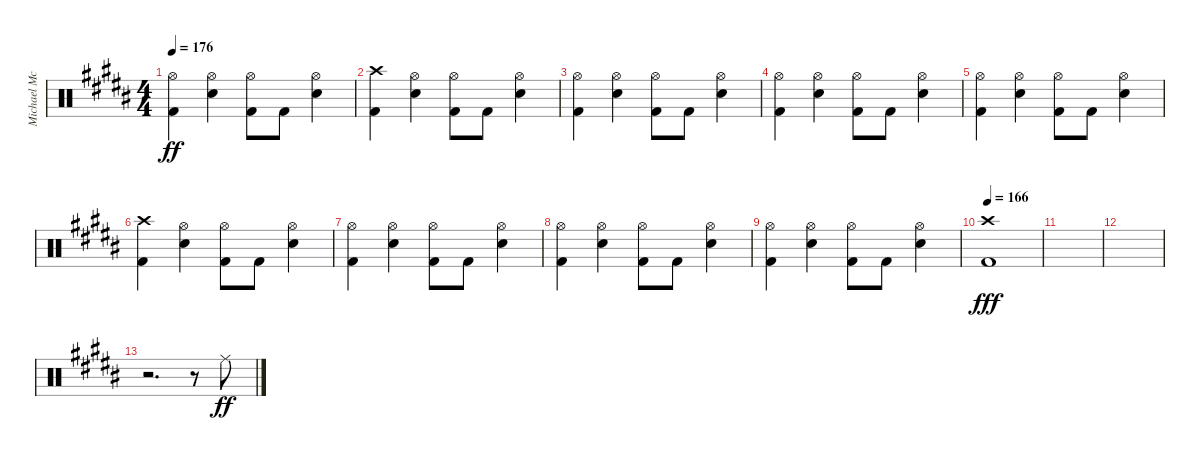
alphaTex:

\track ("Michael McDermott - Drums" "Michael Mc") {instrument percussion}
\staff {score}
\articulation defaults
\ts (4 4)
\tempo 176
\clef neutral
\ks b
("Hi-Hat (open)" "Kick (hit) 2").4{dy ff} ("Snare (hit) 2" "Hi-Hat (open)").4 ("Hi-Hat (open)" "Kick (hit) 2").8 "Kick (hit) 2".8 ("Snare (hit) 2" "Hi-Hat (open)").4 |
("Kick (hit) 2" "Crash high (hit)").4 ("Snare (hit) 2" "Hi-Hat (open)").4 ("Hi-Hat (open)" "Kick (hit) 2").8 "Kick (hit) 2".8 ("Snare (hit) 2" "Hi-Hat (open)").4 |
("Hi-Hat (open)" "Kick (hit) 2").4 ("Snare (hit) 2" "Hi-Hat (open)").4 ("Hi-Hat (open)" "Kick (hit) 2").8 "Kick (hit) 2".8 ("Snare (hit) 2" "Hi-Hat (open)").4 |
("Hi-Hat (open)" "Kick (hit) 2").4 ("Snare (hit) 2" "Hi-Hat (open)").4 ("Hi-Hat (open)" "Kick (hit) 2").8 "Kick (hit) 2".8 ("Snare (hit) 2" "Hi-Hat (open)").4 |
("Hi-Hat (open)" "Kick (hit) 2").4 ("Snare (hit) 2" "Hi-Hat (open)").4 ("Hi-Hat (open)" "Kick (hit) 2").8 "Kick (hit) 2".8 ("Snare (hit) 2" "Hi-Hat (open)").4 |
("Kick (hit) 2" "Crash high (hit)").4 ("Snare (hit) 2" "Hi-Hat (open)").4 ("Hi-Hat (open)" "Kick (hit) 2").8 "Kick (hit) 2".8 ("Snare (hit) 2" "Hi-Hat (open)").4 |
("Hi-Hat (open)" "Kick (hit) 2").4 ("Snare (hit) 2" "Hi-Hat (open)").4 ("Hi-Hat (open)" "Kick (hit) 2").8 "Kick (hit) 2".8 ("Snare (hit) 2" "Hi-Hat (open)").4 |
("Hi-Hat (open)" "Kick (hit) 2").4 ("Snare (hit) 2" "Hi-Hat (open)").4 ("Hi-Hat (open)" "Kick (hit) 2").8 "Kick (hit) 2".8 ("Snare (hit) 2" "Hi-Hat (open)").4 |
("Hi-Hat (open)" "Kick (hit) 2").4 ("Snare (hit) 2" "Hi-Hat (open)").4 ("Hi-Hat (open)" "Kick (hit) 2").8 "Kick (hit) 2".8 ("Snare (hit) 2" "Hi-Hat (open)").4 |
\tempo 166
("Crash high (hit)" "Kick (hit) 2").1{dy fff} |
|
|
r.2{d} r.8 "Ride (middle)".8{dy ff}
